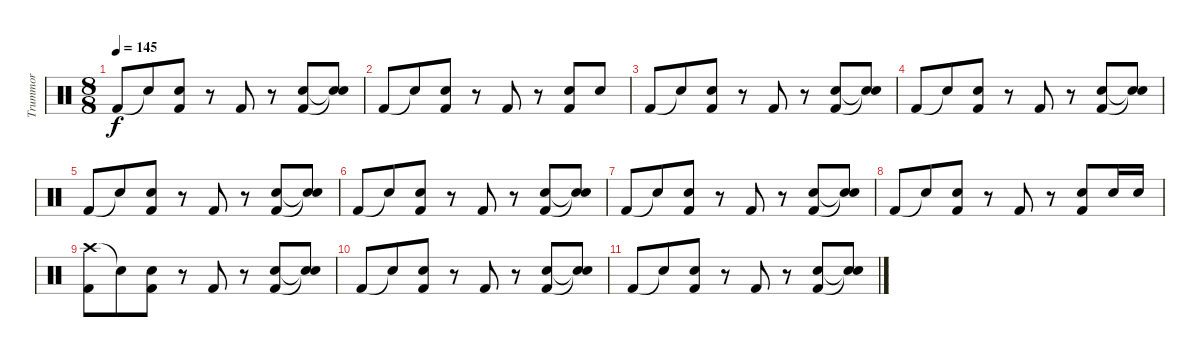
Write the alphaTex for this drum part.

\track ("Trummor" "Trummor") {instrument percussion}
\staff {score}
\articulation defaults
\ts (8 8)
\tempo 145
\clef neutral
\ks c "Kick (hit) 2".8{dy f} "Snare (hit)"{t}.8
("Snare (hit) 2" "Kick (hit) 2").8 r.8 "Kick (hit) 2".8 r.8 ("Snare (hit) 2" "Kick (hit) 2").8 ("Snare (hit)"{t} "Snare (hit)"{t}).8 |
"Kick (hit) 2".8 "Snare (hit)"{t}.8 ("Snare (hit) 2" "Kick (hit) 2").8 r.8 "Kick (hit) 2".8 r.8 ("Snare (hit) 2" "Kick (hit) 2").8 "Snare (hit) 2".8 |
"Kick (hit) 2".8 "Snare (hit)"{t}.8 ("Snare (hit) 2" "Kick (hit) 2").8 r.8 "Kick (hit) 2".8 r.8 ("Snare (hit) 2" "Kick (hit) 2").8 ("Snare (hit)"{t} "Snare (hit)"{t}).8 |
"Kick (hit) 2".8 "Snare (hit)"{t}.8 ("Snare (hit) 2" "Kick (hit) 2").8 r.8 "Kick (hit) 2".8 r.8 ("Snare (hit) 2" "Kick (hit) 2").8 ("Snare (hit)"{t} "Snare (hit)"{t}).8 |
"Kick (hit) 2".8 "Snare (hit)"{t}.8 ("Snare (hit) 2" "Kick (hit) 2").8 r.8 "Kick (hit) 2".8 r.8 ("Snare (hit) 2" "Kick (hit) 2").8 ("Snare (hit)"{t} "Snare (hit)"{t}).8 |
"Kick (hit) 2".8 "Snare (hit)"{t}.8 ("Snare (hit) 2" "Kick (hit) 2").8 r.8 "Kick (hit) 2".8 r.8 ("Snare (hit) 2" "Kick (hit) 2").8 ("Snare (hit)"{t} "Snare (hit)"{t}).8 |
"Kick (hit) 2".8 "Snare (hit)"{t}.8 ("Snare (hit) 2" "Kick (hit) 2").8 r.8 "Kick (hit) 2".8 r.8 ("Snare (hit) 2" "Kick (hit) 2").8 ("Snare (hit)"{t} "Snare (hit)"{t}).8 |
"Kick (hit) 2".8 "Snare (hit)"{t}.8 ("Snare (hit) 2" "Kick (hit) 2").8 r.8 "Kick (hit) 2".8 r.8 ("Snare (hit) 2" "Kick (hit) 2").8 "Snare (hit) 2".16 "Snare (hit) 2".16 |
("Crash high (hit)" "Kick (hit) 2").8 "Snare (hit)"{t}.8 ("Snare (hit) 2" "Kick (hit) 2").8 r.8 "Kick (hit) 2".8 r.8 ("Snare (hit) 2" "Kick (hit) 2").8 ("Snare (hit)"{t} "Snare (hit)"{t}).8 |
"Kick (hit) 2".8 "Snare (hit)"{t}.8 ("Snare (hit) 2" "Kick (hit) 2").8 r.8 "Kick (hit) 2".8 r.8 ("Snare (hit) 2" "Kick (hit) 2").8 ("Snare (hit)"{t} "Snare (hit)"{t}).8 |
"Kick (hit) 2".8 "Snare (hit)"{t}.8 ("Snare (hit) 2" "Kick (hit) 2").8 r.8 "Kick (hit) 2".8 r.8 ("Snare (hit) 2" "Kick (hit) 2").8 ("Snare (hit)"{t} "Snare (hit)"{t}).8
